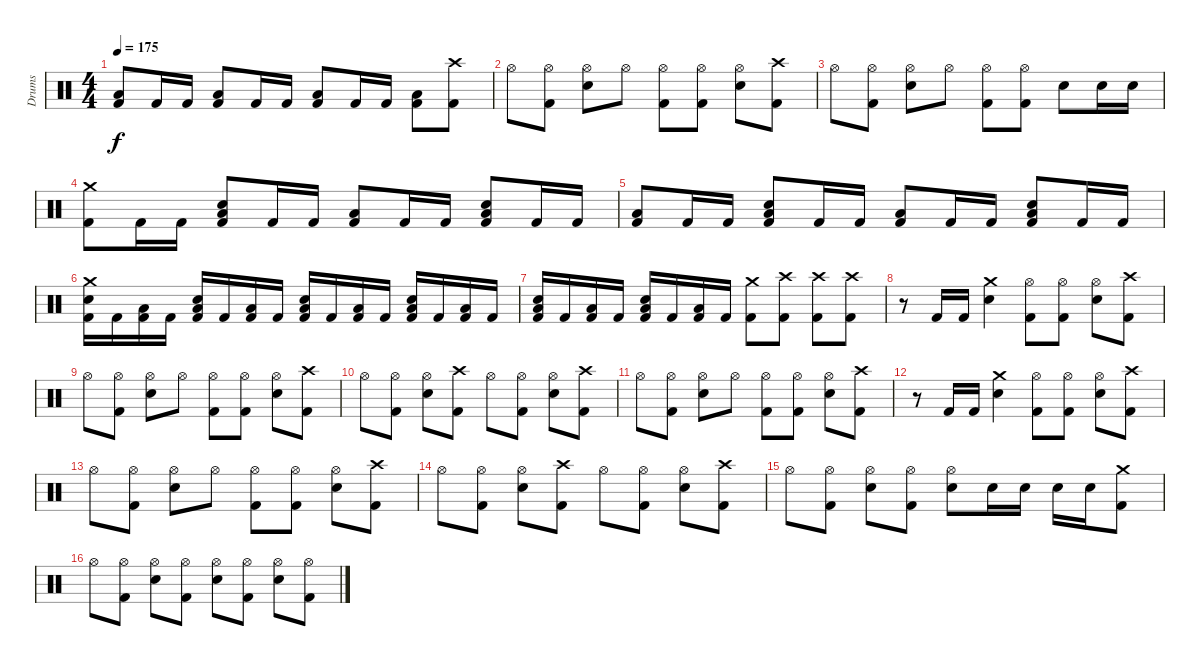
\track ("Drums" "Drums") {instrument percussion}
\staff {score}
\articulation defaults
\ts (4 4)
\tempo 175
\clef neutral
\ks c
("Low Floor Tom (hit)" "Kick (hit) 2").8{dy f} "Kick (hit) 2".16 "Kick (hit) 2".16 ("Low Floor Tom (hit)" "Kick (hit) 2").8 "Kick (hit) 2".16 "Kick (hit) 2".16 ("Low Floor Tom (hit)" "Kick (hit) 2").8 "Kick (hit) 2".16 "Kick (hit) 2".16 ("Low Floor Tom (hit)" "Kick (hit) 2").8 ("Crash high (hit)" "Kick (hit) 2").8 |
"Hi-Hat (open)".8 ("Hi-Hat (open)" "Kick (hit) 2").8 ("Hi-Hat (open)" "Snare (hit) 2").8 "Hi-Hat (open)".8 ("Hi-Hat (open)" "Kick (hit) 2").8 ("Hi-Hat (open)" "Kick (hit) 2").8 ("Hi-Hat (open)" "Snare (hit) 2").8 ("Crash high (hit)" "Kick (hit) 2").8 |
"Hi-Hat (open)".8 ("Hi-Hat (open)" "Kick (hit) 2").8 ("Hi-Hat (open)" "Snare (hit) 2").8 "Hi-Hat (open)".8 ("Hi-Hat (open)" "Kick (hit) 2").8 ("Hi-Hat (open)" "Kick (hit) 2").8 "Snare (hit) 2".8 "Snare (hit) 2".16 "Snare (hit) 2".16 |
("Crash medium (hit)" "Kick (hit) 2").8 "Kick (hit) 2".16 "Kick (hit) 2".16 ("Snare (hit) 2" "Low Floor Tom (hit)" "Kick (hit) 2").8 "Kick (hit) 2".16 "Kick (hit) 2".16 ("Low Floor Tom (hit)" "Kick (hit) 2").8 "Kick (hit) 2".16 "Kick (hit) 2".16 ("Snare (hit) 2" "Low Floor Tom (hit)" "Kick (hit) 2").8 "Kick (hit) 2".16 "Kick (hit) 2".16 |
("Low Floor Tom (hit)" "Kick (hit) 2").8 "Kick (hit) 2".16 "Kick (hit) 2".16 ("Snare (hit) 2" "Low Floor Tom (hit)" "Kick (hit) 2").8 "Kick (hit) 2".16 "Kick (hit) 2".16 ("Low Floor Tom (hit)" "Kick (hit) 2").8 "Kick (hit) 2".16 "Kick (hit) 2".16 ("Snare (hit) 2" "Low Floor Tom (hit)" "Kick (hit) 2").8 "Kick (hit) 2".16 "Kick (hit) 2".16 |
("Crash medium (hit)" "Snare (hit) 2" "Kick (hit) 2").16 "Kick (hit) 2".16 ("Low Floor Tom (hit)" "Kick (hit) 2").16 "Kick (hit) 2".16 ("Snare (hit) 2" "Low Floor Tom (hit)" "Kick (hit) 2").16 "Kick (hit) 2".16 ("Low Floor Tom (hit)" "Kick (hit) 2").16 "Kick (hit) 2".16 ("Snare (hit) 2" "Low Floor Tom (hit)" "Kick (hit) 2").16 "Kick (hit) 2".16 ("Low Floor Tom (hit)" "Kick (hit) 2").16 "Kick (hit) 2".16 ("Snare (hit) 2" "Low Floor Tom (hit)" "Kick (hit) 2").16 "Kick (hit) 2".16 ("Low Floor Tom (hit)" "Kick (hit) 2").16 "Kick (hit) 2".16 |
("Snare (hit) 2" "Low Floor Tom (hit)" "Kick (hit) 2").16 "Kick (hit) 2".16 ("Low Floor Tom (hit)" "Kick (hit) 2").16 "Kick (hit) 2".16 ("Snare (hit) 2" "Low Floor Tom (hit)" "Kick (hit) 2").16 "Kick (hit) 2".16 ("Low Floor Tom (hit)" "Kick (hit) 2").16 "Kick (hit) 2".16 ("Crash medium (hit)" "Kick (hit) 2").8 ("Crash high (hit)" "Kick (hit) 2").8 ("Crash high (hit)" "Kick (hit) 2").8 ("Crash high (hit)" "Kick (hit) 2").8 |
r.8 "Kick (hit) 2".16 "Kick (hit) 2".16 ("Crash medium (hit)" "Snare (hit) 2").4 ("Hi-Hat (open)" "Kick (hit) 2").8 ("Hi-Hat (open)" "Kick (hit) 2").8 ("Hi-Hat (open)" "Snare (hit) 2").8 ("Crash high (hit)" "Kick (hit) 2").8 |
"Hi-Hat (open)".8 ("Hi-Hat (open)" "Kick (hit) 2").8 ("Hi-Hat (open)" "Snare (hit) 2").8 "Hi-Hat (open)".8 ("Hi-Hat (open)" "Kick (hit) 2").8 ("Hi-Hat (open)" "Kick (hit) 2").8 ("Hi-Hat (open)" "Snare (hit) 2").8 ("Crash high (hit)" "Kick (hit) 2").8 |
"Hi-Hat (open)".8 ("Hi-Hat (open)" "Kick (hit) 2").8 ("Hi-Hat (open)" "Snare (hit) 2").8 ("Crash high (hit)" "Kick (hit) 2").8 "Hi-Hat (open)".8 ("Hi-Hat (open)" "Kick (hit) 2").8 ("Hi-Hat (open)" "Snare (hit) 2").8 ("Crash high (hit)" "Kick (hit) 2").8 |
"Hi-Hat (open)".8 ("Hi-Hat (open)" "Kick (hit) 2").8 ("Hi-Hat (open)" "Snare (hit) 2").8 "Hi-Hat (open)".8 ("Hi-Hat (open)" "Kick (hit) 2").8 ("Hi-Hat (open)" "Kick (hit) 2").8 ("Hi-Hat (open)" "Snare (hit) 2").8 ("Crash high (hit)" "Kick (hit) 2").8 |
r.8 "Kick (hit) 2".16 "Kick (hit) 2".16 ("Crash medium (hit)" "Snare (hit) 2").4 ("Hi-Hat (open)" "Kick (hit) 2").8 ("Hi-Hat (open)" "Kick (hit) 2").8 ("Hi-Hat (open)" "Snare (hit) 2").8 ("Crash high (hit)" "Kick (hit) 2").8 |
"Hi-Hat (open)".8 ("Hi-Hat (open)" "Kick (hit) 2").8 ("Hi-Hat (open)" "Snare (hit) 2").8 "Hi-Hat (open)".8 ("Hi-Hat (open)" "Kick (hit) 2").8 ("Hi-Hat (open)" "Kick (hit) 2").8 ("Hi-Hat (open)" "Snare (hit) 2").8 ("Crash high (hit)" "Kick (hit) 2").8 |
"Hi-Hat (open)".8 ("Hi-Hat (open)" "Kick (hit) 2").8 ("Hi-Hat (open)" "Snare (hit) 2").8 ("Crash high (hit)" "Kick (hit) 2").8 "Hi-Hat (open)".8 ("Hi-Hat (open)" "Kick (hit) 2").8 ("Hi-Hat (open)" "Snare (hit) 2").8 ("Crash high (hit)" "Kick (hit) 2").8 |
"Hi-Hat (open)".8 ("Hi-Hat (open)" "Kick (hit) 2").8 ("Hi-Hat (open)" "Snare (hit) 2").8 ("Hi-Hat (open)" "Kick (hit) 2").8 ("Hi-Hat (open)" "Snare (hit) 2").8 "Snare (hit) 2".16 "Snare (hit) 2".16 "Snare (hit) 2".16 "Snare (hit) 2".16 ("Crash medium (hit)" "Kick (hit) 2").8 |
"Hi-Hat (open)".8 ("Hi-Hat (open)" "Kick (hit) 2").8 ("Hi-Hat (open)" "Snare (hit) 2").8 ("Hi-Hat (open)" "Kick (hit) 2").8 ("Hi-Hat (open)" "Snare (hit) 2").8 ("Hi-Hat (open)" "Kick (hit) 2").8 ("Hi-Hat (open)" "Snare (hit) 2").8 ("Hi-Hat (open)" "Kick (hit) 2").8
